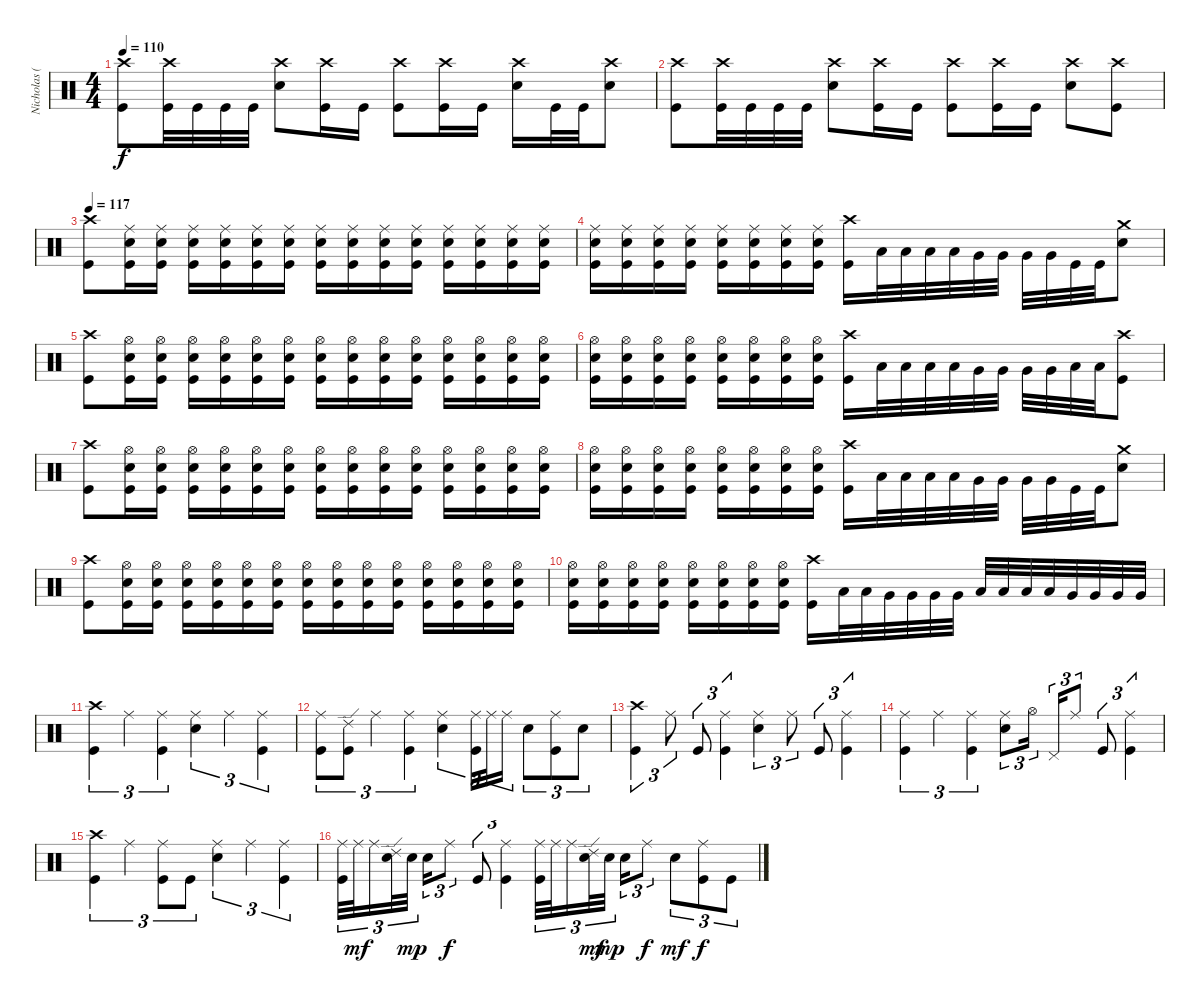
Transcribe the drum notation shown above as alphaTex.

\track ("Nicholas (Drums)" "Nicholas (") {instrument percussion}
\staff {score}
\articulation defaults
\ts (4 4)
\tempo 110
\clef neutral
\ks c
("Crash high (hit)" "Kick (hit)").8{dy f} ("Crash high (hit)" "Kick (hit)").32 "Kick (hit)".32 "Kick (hit)".32 "Kick (hit)".32 ("Crash high (hit)" "Electric Snare (hit)").8 ("Crash high (hit)" "Kick (hit)").16 "Kick (hit)".16 ("Crash high (hit)" "Kick (hit)").8 ("Crash high (hit)" "Kick (hit)").16 "Kick (hit)".16 ("Crash high (hit)" "Electric Snare (hit)").16 "Kick (hit)".32 "Kick (hit)".32 ("Crash high (hit)" "Electric Snare (hit)").8 |
("Crash high (hit)" "Kick (hit)").8 ("Crash high (hit)" "Kick (hit)").32 "Kick (hit)".32 "Kick (hit)".32 "Kick (hit)".32 ("Crash high (hit)" "Electric Snare (hit)").8 ("Crash high (hit)" "Kick (hit)").16 "Kick (hit)".16 ("Crash high (hit)" "Kick (hit)").8 ("Crash high (hit)" "Kick (hit)").16 "Kick (hit)".16 ("Crash high (hit)" "Electric Snare (hit)").8 ("Crash high (hit)" "Kick (hit)").8 |
\tempo 117
("Crash high (hit)" "Kick (hit)").8 ("Ride (middle)" "Electric Snare (hit)" "Kick (hit)").16 ("Ride (middle)" "Electric Snare (hit)" "Kick (hit)").16 ("Ride (middle)" "Electric Snare (hit)" "Kick (hit)").16 ("Ride (middle)" "Electric Snare (hit)" "Kick (hit)").16 ("Ride (middle)" "Electric Snare (hit)" "Kick (hit)").16 ("Ride (middle)" "Electric Snare (hit)" "Kick (hit)").16 ("Ride (middle)" "Electric Snare (hit)" "Kick (hit)").16 ("Ride (middle)" "Electric Snare (hit)" "Kick (hit)").16 ("Ride (middle)" "Electric Snare (hit)" "Kick (hit)").16 ("Ride (middle)" "Electric Snare (hit)" "Kick (hit)").16 ("Ride (middle)" "Electric Snare (hit)" "Kick (hit)").16 ("Ride (middle)" "Electric Snare (hit)" "Kick (hit)").16 ("Ride (middle)" "Electric Snare (hit)" "Kick (hit)").16 ("Ride (middle)" "Electric Snare (hit)" "Kick (hit)").16 |
("Ride (middle)" "Electric Snare (hit)" "Kick (hit)").16 ("Ride (middle)" "Electric Snare (hit)" "Kick (hit)").16 ("Ride (middle)" "Electric Snare (hit)" "Kick (hit)").16 ("Ride (middle)" "Electric Snare (hit)" "Kick (hit)").16 ("Ride (middle)" "Electric Snare (hit)" "Kick (hit)").16 ("Ride (middle)" "Electric Snare (hit)" "Kick (hit)").16 ("Ride (middle)" "Electric Snare (hit)" "Kick (hit)").16 ("Ride (middle)" "Electric Snare (hit)" "Kick (hit)").16 ("Crash high (hit)" "Kick (hit)").16 "Low Tom (hit)".32 "Low Tom (hit)".32 "Low Tom (hit)".32 "Low Tom (hit)".32 "Very Low Tom (hit)".32 "Very Low Tom (hit)".32 "Very Low Tom (hit)".32 "Very Low Tom (hit)".32 "Kick (hit)".32 "Kick (hit)".32 ("Crash medium (hit)" "Electric Snare (hit)").8 |
("Crash high (hit)" "Kick (hit)").8 ("Hi-Hat (open)" "Electric Snare (hit)" "Kick (hit)").16 ("Hi-Hat (open)" "Electric Snare (hit)" "Kick (hit)").16 ("Hi-Hat (open)" "Electric Snare (hit)" "Kick (hit)").16 ("Hi-Hat (open)" "Electric Snare (hit)" "Kick (hit)").16 ("Hi-Hat (open)" "Electric Snare (hit)" "Kick (hit)").16 ("Hi-Hat (open)" "Electric Snare (hit)" "Kick (hit)").16 ("Hi-Hat (open)" "Electric Snare (hit)" "Kick (hit)").16 ("Hi-Hat (open)" "Electric Snare (hit)" "Kick (hit)").16 ("Hi-Hat (open)" "Electric Snare (hit)" "Kick (hit)").16 ("Hi-Hat (open)" "Electric Snare (hit)" "Kick (hit)").16 ("Hi-Hat (open)" "Electric Snare (hit)" "Kick (hit)").16 ("Hi-Hat (open)" "Electric Snare (hit)" "Kick (hit)").16 ("Hi-Hat (open)" "Electric Snare (hit)" "Kick (hit)").16 ("Hi-Hat (open)" "Electric Snare (hit)" "Kick (hit)").16 |
("Hi-Hat (open)" "Electric Snare (hit)" "Kick (hit)").16 ("Hi-Hat (open)" "Electric Snare (hit)" "Kick (hit)").16 ("Hi-Hat (open)" "Electric Snare (hit)" "Kick (hit)").16 ("Hi-Hat (open)" "Electric Snare (hit)" "Kick (hit)").16 ("Hi-Hat (open)" "Electric Snare (hit)" "Kick (hit)").16 ("Hi-Hat (open)" "Electric Snare (hit)" "Kick (hit)").16 ("Hi-Hat (open)" "Electric Snare (hit)" "Kick (hit)").16 ("Hi-Hat (open)" "Electric Snare (hit)" "Kick (hit)").16 ("Crash high (hit)" "Kick (hit)").16 "Low Floor Tom (hit)".32 "Low Floor Tom (hit)".32 "Low Floor Tom (hit)".32 "Low Floor Tom (hit)".32 "Very Low Tom (hit)".32 "Very Low Tom (hit)".32 "Very Low Tom (hit)".32 "Very Low Tom (hit)".32 "Low Floor Tom (hit)".32 "Low Floor Tom (hit)".32 ("Crash high (hit)" "Kick (hit)").8 |
("Crash high (hit)" "Kick (hit)").8 ("Hi-Hat (open)" "Electric Snare (hit)" "Kick (hit)").16 ("Hi-Hat (open)" "Electric Snare (hit)" "Kick (hit)").16 ("Hi-Hat (open)" "Electric Snare (hit)" "Kick (hit)").16 ("Hi-Hat (open)" "Electric Snare (hit)" "Kick (hit)").16 ("Hi-Hat (open)" "Electric Snare (hit)" "Kick (hit)").16 ("Hi-Hat (open)" "Electric Snare (hit)" "Kick (hit)").16 ("Hi-Hat (open)" "Electric Snare (hit)" "Kick (hit)").16 ("Hi-Hat (open)" "Electric Snare (hit)" "Kick (hit)").16 ("Hi-Hat (open)" "Electric Snare (hit)" "Kick (hit)").16 ("Hi-Hat (open)" "Electric Snare (hit)" "Kick (hit)").16 ("Hi-Hat (open)" "Electric Snare (hit)" "Kick (hit)").16 ("Hi-Hat (open)" "Electric Snare (hit)" "Kick (hit)").16 ("Hi-Hat (open)" "Electric Snare (hit)" "Kick (hit)").16 ("Hi-Hat (open)" "Electric Snare (hit)" "Kick (hit)").16 |
("Hi-Hat (open)" "Electric Snare (hit)" "Kick (hit)").16 ("Hi-Hat (open)" "Electric Snare (hit)" "Kick (hit)").16 ("Hi-Hat (open)" "Electric Snare (hit)" "Kick (hit)").16 ("Hi-Hat (open)" "Electric Snare (hit)" "Kick (hit)").16 ("Hi-Hat (open)" "Electric Snare (hit)" "Kick (hit)").16 ("Hi-Hat (open)" "Electric Snare (hit)" "Kick (hit)").16 ("Hi-Hat (open)" "Electric Snare (hit)" "Kick (hit)").16 ("Hi-Hat (open)" "Electric Snare (hit)" "Kick (hit)").16 ("Crash high (hit)" "Kick (hit)").16 "Low Tom (hit)".32 "Low Tom (hit)".32 "Low Tom (hit)".32 "Low Tom (hit)".32 "Very Low Tom (hit)".32 "Very Low Tom (hit)".32 "Very Low Tom (hit)".32 "Very Low Tom (hit)".32 "Kick (hit)".32 "Kick (hit)".32 ("Crash medium (hit)" "Electric Snare (hit)").8 |
("Crash high (hit)" "Kick (hit)").8 ("Hi-Hat (open)" "Electric Snare (hit)" "Kick (hit)").16 ("Hi-Hat (open)" "Electric Snare (hit)" "Kick (hit)").16 ("Hi-Hat (open)" "Electric Snare (hit)" "Kick (hit)").16 ("Hi-Hat (open)" "Electric Snare (hit)" "Kick (hit)").16 ("Hi-Hat (open)" "Electric Snare (hit)" "Kick (hit)").16 ("Hi-Hat (open)" "Electric Snare (hit)" "Kick (hit)").16 ("Hi-Hat (open)" "Electric Snare (hit)" "Kick (hit)").16 ("Hi-Hat (open)" "Electric Snare (hit)" "Kick (hit)").16 ("Hi-Hat (open)" "Electric Snare (hit)" "Kick (hit)").16 ("Hi-Hat (open)" "Electric Snare (hit)" "Kick (hit)").16 ("Hi-Hat (open)" "Electric Snare (hit)" "Kick (hit)").16 ("Hi-Hat (open)" "Electric Snare (hit)" "Kick (hit)").16 ("Hi-Hat (open)" "Electric Snare (hit)" "Kick (hit)").16 ("Hi-Hat (open)" "Electric Snare (hit)" "Kick (hit)").16 |
("Hi-Hat (open)" "Electric Snare (hit)" "Kick (hit)").16 ("Hi-Hat (open)" "Electric Snare (hit)" "Kick (hit)").16 ("Hi-Hat (open)" "Electric Snare (hit)" "Kick (hit)").16 ("Hi-Hat (open)" "Electric Snare (hit)" "Kick (hit)").16 ("Hi-Hat (open)" "Electric Snare (hit)" "Kick (hit)").16 ("Hi-Hat (open)" "Electric Snare (hit)" "Kick (hit)").16 ("Hi-Hat (open)" "Electric Snare (hit)" "Kick (hit)").16 ("Hi-Hat (open)" "Electric Snare (hit)" "Kick (hit)").16 ("Crash high (hit)" "Kick (hit)").16 "Low Floor Tom (hit)".32 "Low Floor Tom (hit)".32 "Very Low Tom (hit)".32 "Very Low Tom (hit)".32 "Very Low Tom (hit)".32 "Very Low Tom (hit)".32 "Low Tom (hit)".32 "Low Tom (hit)".32 "Low Tom (hit)".32 "Low Tom (hit)".32 "Very Low Tom (hit)".32 "Very Low Tom (hit)".32 "Very Low Tom (hit)".32 "Very Low Tom (hit)".32 |
("Crash high (hit)" "Kick (hit)").4{tu (3 2)} "Ride (middle)".4{tu (3 2)} ("Ride (middle)" "Kick (hit)").4{tu (3 2)} ("Ride (middle)" "Electric Snare (hit)").4{tu (3 2)} "Ride (middle)".4{tu (3 2)} ("Ride (middle)" "Kick (hit)").4{tu (3 2)} |
("Ride (middle)" "Kick (hit)").8{tu (3 2)} ("Ride (edge) 2" "Kick (hit)").8{tu (3 2)} "Ride (middle)".4{tu (3 2)} ("Ride (middle)" "Kick (hit)").4{tu (3 2)} ("Ride (middle)" "Electric Snare (hit)").4{tu (3 2)} ("Ride (middle)" "Kick (hit)").32{tu (3 2)} "Ride (middle)".32{tu (3 2)} "Ride (middle)".16{tu (3 2)} "Electric Snare (hit)".8{tu (3 2)} ("Ride (middle)" "Kick (hit)").8{tu (3 2)} "Electric Snare (hit)".8{tu (3 2)} |
("Crash high (hit)" "Kick (hit)").4{tu (3 2)} "Ride (middle)".8{tu (3 2)} "Kick (hit)".8{tu (3 2)} ("Ride (middle)" "Kick (hit)").4{tu (3 2)} ("Ride (middle)" "Electric Snare (hit)").4{tu (3 2)} "Ride (middle)".8{tu (3 2)} "Kick (hit)".8{tu (3 2)} ("Ride (middle)" "Kick (hit)").4{tu (3 2)} |
("Ride (middle)" "Kick (hit)").4{tu (3 2)} "Ride (middle)".4{tu (3 2)} ("Ride (middle)" "Kick (hit)").4{tu (3 2)} ("Ride (middle)" "Electric Snare (hit)").8{tu (3 2)} "Hi-Hat (open)".16{tu (3 2)} "Pedal Hi-Hat (hit)".16{tu (3 2)} "Ride (middle)".8{tu (3 2)} "Kick (hit)".8{tu (3 2)} ("Ride (middle)" "Kick (hit)").4{tu (3 2)} |
("Crash high (hit)" "Kick (hit)").4{tu (3 2)} "Ride (middle)".4{tu (3 2)} ("Ride (middle)" "Kick (hit)").8{tu (3 2)} "Kick (hit)".8{tu (3 2)} ("Ride (middle)" "Electric Snare (hit)").4{tu (3 2)} "Ride (middle)".4{tu (3 2)} ("Ride (middle)" "Kick (hit)").4{tu (3 2)} |
("Ride (middle)" "Kick (hit)").32{tu (3 2)} "Ride (middle)".32{tu (3 2) dy mf} "Ride (middle)".16{tu (3 2)} ("Ride (edge) 2" "Electric Snare (hit)").32{tu (3 2)} "Electric Snare (hit)".32{tu (3 2) dy mp} "Electric Snare (hit)".16{tu (3 2)} "Ride (middle)".8{tu (3 2) dy f} "Kick (hit)".8{tu (3 2)} ("Ride (middle)" "Kick (hit)").4{tu (3 2)} ("Ride (middle)" "Kick (hit)").32{tu (3 2)} "Ride (middle)".32{tu (3 2)} "Ride (middle)".16{tu (3 2)} ("Ride (edge) 2" "Electric Snare (hit)").32{tu (3 2) dy mf} "Electric Snare (hit)".32{tu (3 2) dy mp} "Electric Snare (hit)".16{tu (3 2)} "Ride (middle)".8{tu (3 2) dy f} "Electric Snare (hit)".8{tu (3 2) dy mf} ("Ride (middle)" "Kick (hit)").8{tu (3 2) dy f} "Kick (hit)".8{tu (3 2)}
